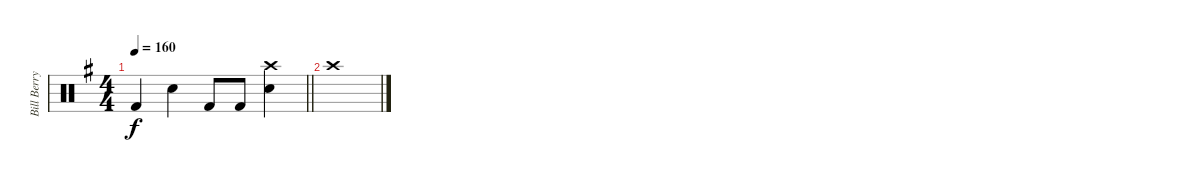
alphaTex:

\track ("Bill Berry" "Bill Berry") {instrument percussion}
\staff {score}
\articulation defaults
\ts (4 4)
\tempo 160
\clef neutral
\barLineRight lightlight
\ks g "Kick (hit) 2".4{dy f} "Snare (hit) 2".4 "Kick (hit) 2".8 "Kick (hit) 2".8
("Snare (hit) 2" "Crash high (hit)").4 |
"Crash high (hit)".1
